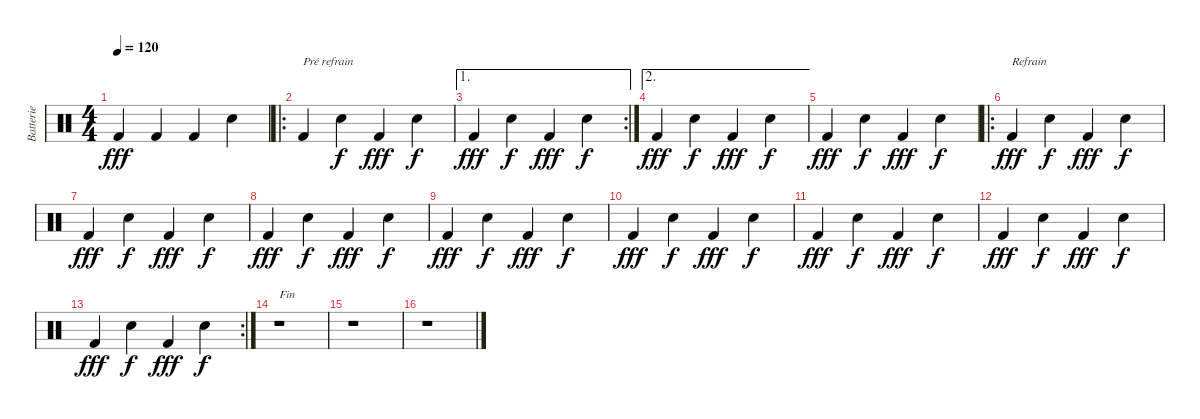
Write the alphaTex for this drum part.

\track ("Batterie" "Batterie") {instrument percussion}
\staff {score}
\articulation defaults
\ts (4 4)
\tempo 120
\clef neutral
\ks c "Kick (hit) 2".4{dy fff} "Kick (hit) 2".4 "Kick (hit) 2".4 "Electric Snare (hit)".4
|
\ro "Kick (hit) 2".4{txt "Pré refrain"} "Electric Snare (hit)".4{dy f} "Kick (hit) 2".4{dy fff} "Electric Snare (hit)".4{dy f}
|
\ae 1
\rc 2 "Kick (hit) 2".4{dy fff} "Electric Snare (hit)".4{dy f} "Kick (hit) 2".4{dy fff} "Electric Snare (hit)".4{dy f}
|
\ae 2 "Kick (hit) 2".4{dy fff} "Electric Snare (hit)".4{dy f} "Kick (hit) 2".4{dy fff} "Electric Snare (hit)".4{dy f}
|
"Kick (hit) 2".4{dy fff} "Electric Snare (hit)".4{dy f} "Kick (hit) 2".4{dy fff} "Electric Snare (hit)".4{dy f} |
\ro "Kick (hit) 2".4{txt "Refrain" dy fff} "Electric Snare (hit)".4{dy f} "Kick (hit) 2".4{dy fff} "Electric Snare (hit)".4{dy f}
|
"Kick (hit) 2".4{dy fff} "Electric Snare (hit)".4{dy f} "Kick (hit) 2".4{dy fff} "Electric Snare (hit)".4{dy f} |
"Kick (hit) 2".4{dy fff} "Electric Snare (hit)".4{dy f} "Kick (hit) 2".4{dy fff} "Electric Snare (hit)".4{dy f} |
"Kick (hit) 2".4{dy fff} "Electric Snare (hit)".4{dy f} "Kick (hit) 2".4{dy fff} "Electric Snare (hit)".4{dy f} |
"Kick (hit) 2".4{dy fff} "Electric Snare (hit)".4{dy f} "Kick (hit) 2".4{dy fff} "Electric Snare (hit)".4{dy f} |
"Kick (hit) 2".4{dy fff} "Electric Snare (hit)".4{dy f} "Kick (hit) 2".4{dy fff} "Electric Snare (hit)".4{dy f} |
"Kick (hit) 2".4{dy fff} "Electric Snare (hit)".4{dy f} "Kick (hit) 2".4{dy fff} "Electric Snare (hit)".4{dy f} |
\rc 2 "Kick (hit) 2".4{dy fff} "Electric Snare (hit)".4{dy f} "Kick (hit) 2".4{dy fff} "Electric Snare (hit)".4{dy f}
|
r.1{txt "Fin"} |
r.1 |
r.1
